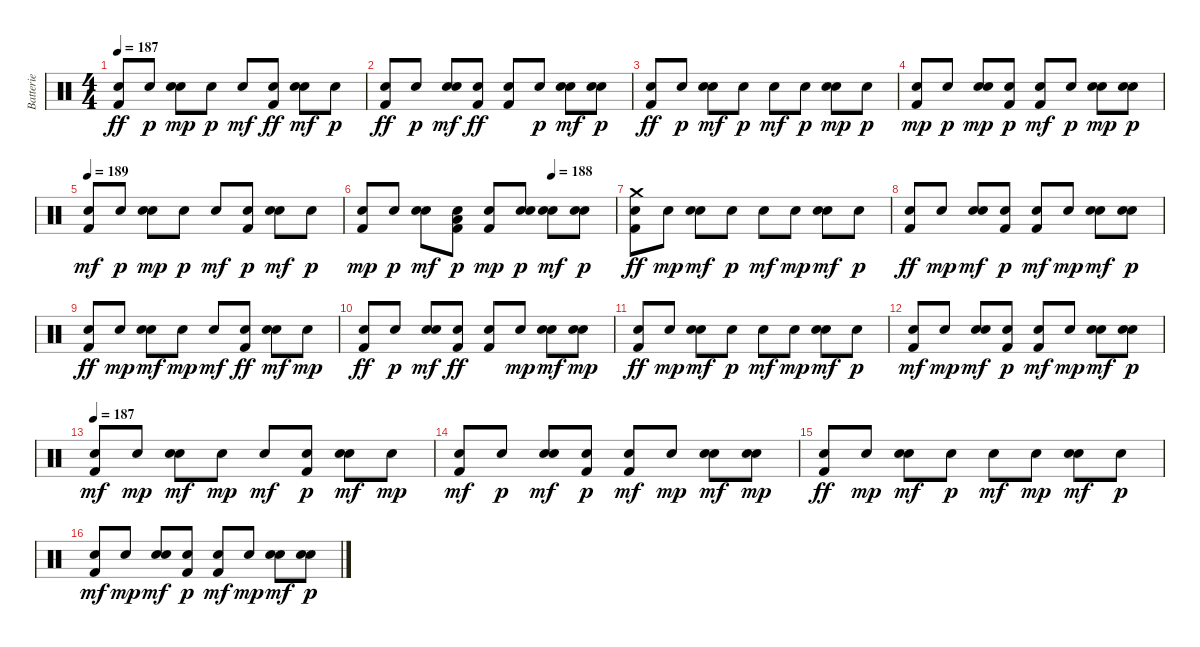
\track ("Batterie            " "Batterie  ") {instrument percussion}
\staff {score}
\articulation defaults
\ts (4 4)
\tempo 187
\clef neutral
\ks c
("Snare (hit) 2" "Kick (hit) 2").8{dy ff} "Snare (hit) 2".8{dy p} ("Hand Clap (hit)" "Snare (hit) 2").8{dy mp} "Snare (hit) 2".8{dy p} "Snare (hit) 2".8{dy mf} ("Snare (hit) 2" "Kick (hit) 2").8{dy ff} ("Hand Clap (hit)" "Snare (hit) 2").8{dy mf} "Snare (hit) 2".8{dy p} |
("Snare (hit) 2" "Kick (hit) 2").8{dy ff} "Snare (hit) 2".8{dy p} ("Hand Clap (hit)" "Snare (hit) 2").8{dy mf} ("Snare (hit) 2" "Kick (hit) 2").8{dy ff} ("Snare (hit) 2" "Kick (hit) 2").8 "Snare (hit) 2".8{dy p} ("Hand Clap (hit)" "Snare (hit) 2").8{dy mf} ("Hand Clap (hit)" "Snare (hit) 2").8{dy p} |
("Kick (hit) 2" "Snare (hit) 2").8{dy ff} "Snare (hit) 2".8{dy p} ("Hand Clap (hit)" "Snare (hit) 2").8{dy mf} "Snare (hit) 2".8{dy p} "Snare (hit) 2".8{dy mf} "Snare (hit) 2".8{dy p} ("Hand Clap (hit)" "Snare (hit) 2").8{dy mp} "Snare (hit) 2".8{dy p} |
("Kick (hit) 2" "Snare (hit) 2").8{dy mp} "Snare (hit) 2".8{dy p} ("Hand Clap (hit)" "Snare (hit) 2").8{dy mp} ("Kick (hit) 2" "Snare (hit) 2").8{dy p} ("Kick (hit) 2" "Snare (hit) 2").8{dy mf} "Snare (hit) 2".8{dy p} ("Hand Clap (hit)" "Snare (hit) 2").8{dy mp} ("Hand Clap (hit)" "Snare (hit) 2").8{dy p} |
\tempo 189
("Kick (hit) 2" "Snare (hit) 2").8{dy mf} "Snare (hit) 2".8{dy p} ("Hand Clap (hit)" "Snare (hit) 2").8{dy mp} "Snare (hit) 2".8{dy p} "Snare (hit) 2".8{dy mf} ("Kick (hit) 2" "Snare (hit) 2").8{dy p} ("Hand Clap (hit)" "Snare (hit) 2").8{dy mf} "Snare (hit) 2".8{dy p} |
\tempo (188 0.75)
("Kick (hit) 2" "Snare (hit) 2").8{dy mp} "Snare (hit) 2".8{dy p} ("Hand Clap (hit)" "Snare (hit) 2").8{dy mf} ("Low Tom (hit)" "Kick (hit) 2" "Snare (hit) 2").8{dy p} ("Kick (hit) 2" "Snare (hit) 2").8{dy mp} ("Hand Clap (hit)" "Snare (hit) 2").8{dy p} ("Hand Clap (hit)" "Snare (hit) 2").8{dy mf} ("Hand Clap (hit)" "Snare (hit) 2").8{dy p} |
("Snare (hit) 2" "Kick (hit) 2" "Crash medium (hit)").8{dy ff} "Snare (hit) 2".8{dy mp} ("Hand Clap (hit)" "Snare (hit) 2").8{dy mf} "Snare (hit) 2".8{dy p} "Snare (hit) 2".8{dy mf} "Snare (hit) 2".8{dy mp} ("Hand Clap (hit)" "Snare (hit) 2").8{dy mf} "Snare (hit) 2".8{dy p} |
("Snare (hit) 2" "Kick (hit) 2").8{dy ff} "Snare (hit) 2".8{dy mp} ("Hand Clap (hit)" "Snare (hit) 2").8{dy mf} ("Snare (hit) 2" "Kick (hit) 2").8{dy p} ("Snare (hit) 2" "Kick (hit) 2").8{dy mf} "Snare (hit) 2".8{dy mp} ("Hand Clap (hit)" "Snare (hit) 2").8{dy mf} ("Hand Clap (hit)" "Snare (hit) 2").8{dy p} |
("Snare (hit) 2" "Kick (hit) 2").8{dy ff} "Snare (hit) 2".8{dy mp} ("Hand Clap (hit)" "Snare (hit) 2").8{dy mf} "Snare (hit) 2".8{dy mp} "Snare (hit) 2".8{dy mf} ("Snare (hit) 2" "Kick (hit) 2").8{dy ff} ("Hand Clap (hit)" "Snare (hit) 2").8{dy mf} "Snare (hit) 2".8{dy mp} |
("Snare (hit) 2" "Kick (hit) 2").8{dy ff} "Snare (hit) 2".8{dy p} ("Hand Clap (hit)" "Snare (hit) 2").8{dy mf} ("Snare (hit) 2" "Kick (hit) 2").8{dy ff} ("Snare (hit) 2" "Kick (hit) 2").8 "Snare (hit) 2".8{dy mp} ("Hand Clap (hit)" "Snare (hit) 2").8{dy mf} ("Hand Clap (hit)" "Snare (hit) 2").8{dy mp} |
("Kick (hit) 2" "Snare (hit) 2").8{dy ff} "Snare (hit) 2".8{dy mp} ("Hand Clap (hit)" "Snare (hit) 2").8{dy mf} "Snare (hit) 2".8{dy p} "Snare (hit) 2".8{dy mf} "Snare (hit) 2".8{dy mp} ("Hand Clap (hit)" "Snare (hit) 2").8{dy mf} "Snare (hit) 2".8{dy p} |
("Kick (hit) 2" "Snare (hit) 2").8{dy mf} "Snare (hit) 2".8{dy mp} ("Hand Clap (hit)" "Snare (hit) 2").8{dy mf} ("Kick (hit) 2" "Snare (hit) 2").8{dy p} ("Kick (hit) 2" "Snare (hit) 2").8{dy mf} "Snare (hit) 2".8{dy mp} ("Hand Clap (hit)" "Snare (hit) 2").8{dy mf} ("Hand Clap (hit)" "Snare (hit) 2").8{dy p} |
\tempo 187
("Kick (hit) 2" "Snare (hit) 2").8{dy mf} "Snare (hit) 2".8{dy mp} ("Hand Clap (hit)" "Snare (hit) 2").8{dy mf} "Snare (hit) 2".8{dy mp} "Snare (hit) 2".8{dy mf} ("Kick (hit) 2" "Snare (hit) 2").8{dy p} ("Hand Clap (hit)" "Snare (hit) 2").8{dy mf} "Snare (hit) 2".8{dy mp} |
("Kick (hit) 2" "Snare (hit) 2").8{dy mf} "Snare (hit) 2".8{dy p} ("Hand Clap (hit)" "Snare (hit) 2").8{dy mf} ("Kick (hit) 2" "Snare (hit) 2").8{dy p} ("Kick (hit) 2" "Snare (hit) 2").8{dy mf} "Snare (hit) 2".8{dy mp} ("Hand Clap (hit)" "Snare (hit) 2").8{dy mf} ("Hand Clap (hit)" "Snare (hit) 2").8{dy mp} |
("Kick (hit) 2" "Snare (hit) 2").8{dy ff} "Snare (hit) 2".8{dy mp} ("Hand Clap (hit)" "Snare (hit) 2").8{dy mf} "Snare (hit) 2".8{dy p} "Snare (hit) 2".8{dy mf} "Snare (hit) 2".8{dy mp} ("Hand Clap (hit)" "Snare (hit) 2").8{dy mf} "Snare (hit) 2".8{dy p} |
("Kick (hit) 2" "Snare (hit) 2").8{dy mf} "Snare (hit) 2".8{dy mp} ("Hand Clap (hit)" "Snare (hit) 2").8{dy mf} ("Kick (hit) 2" "Snare (hit) 2").8{dy p} ("Kick (hit) 2" "Snare (hit) 2").8{dy mf} "Snare (hit) 2".8{dy mp} ("Hand Clap (hit)" "Snare (hit) 2").8{dy mf} ("Hand Clap (hit)" "Snare (hit) 2").8{dy p}
